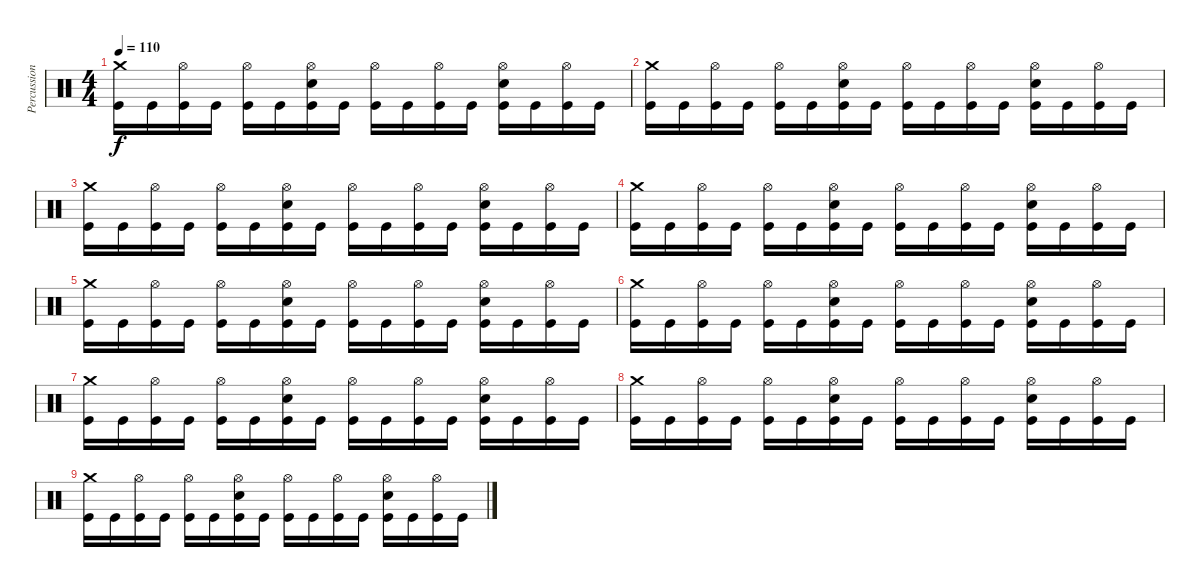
\track ("Percussion" "Percussion") {instrument percussion}
\staff {score}
\articulation defaults
\ts (4 4)
\tempo 110
\clef neutral
\ks c
("Crash medium (hit)" "Kick (hit)").16{dy f} "Kick (hit)".16 ("Hi-Hat (open)" "Kick (hit)").16 "Kick (hit)".16 ("Hi-Hat (open)" "Kick (hit)").16 "Kick (hit)".16 ("Hi-Hat (open)" "Snare (hit) 2" "Kick (hit)").16 "Kick (hit)".16 ("Hi-Hat (open)" "Kick (hit)").16 "Kick (hit)".16 ("Hi-Hat (open)" "Kick (hit)").16 "Kick (hit)".16 ("Hi-Hat (open)" "Snare (hit) 2" "Kick (hit)").16 "Kick (hit)".16 ("Hi-Hat (open)" "Kick (hit)").16 "Kick (hit)".16 |
("Crash medium (hit)" "Kick (hit)").16 "Kick (hit)".16 ("Hi-Hat (open)" "Kick (hit)").16 "Kick (hit)".16 ("Hi-Hat (open)" "Kick (hit)").16 "Kick (hit)".16 ("Hi-Hat (open)" "Snare (hit) 2" "Kick (hit)").16 "Kick (hit)".16 ("Hi-Hat (open)" "Kick (hit)").16 "Kick (hit)".16 ("Hi-Hat (open)" "Kick (hit)").16 "Kick (hit)".16 ("Hi-Hat (open)" "Snare (hit) 2" "Kick (hit)").16 "Kick (hit)".16 ("Hi-Hat (open)" "Kick (hit)").16 "Kick (hit)".16 |
("Crash medium (hit)" "Kick (hit)").16 "Kick (hit)".16 ("Hi-Hat (open)" "Kick (hit)").16 "Kick (hit)".16 ("Hi-Hat (open)" "Kick (hit)").16 "Kick (hit)".16 ("Hi-Hat (open)" "Snare (hit) 2" "Kick (hit)").16 "Kick (hit)".16 ("Hi-Hat (open)" "Kick (hit)").16 "Kick (hit)".16 ("Hi-Hat (open)" "Kick (hit)").16 "Kick (hit)".16 ("Hi-Hat (open)" "Snare (hit) 2" "Kick (hit)").16 "Kick (hit)".16 ("Hi-Hat (open)" "Kick (hit)").16 "Kick (hit)".16 |
("Crash medium (hit)" "Kick (hit)").16 "Kick (hit)".16 ("Hi-Hat (open)" "Kick (hit)").16 "Kick (hit)".16 ("Hi-Hat (open)" "Kick (hit)").16 "Kick (hit)".16 ("Hi-Hat (open)" "Snare (hit) 2" "Kick (hit)").16 "Kick (hit)".16 ("Hi-Hat (open)" "Kick (hit)").16 "Kick (hit)".16 ("Hi-Hat (open)" "Kick (hit)").16 "Kick (hit)".16 ("Hi-Hat (open)" "Snare (hit) 2" "Kick (hit)").16 "Kick (hit)".16 ("Hi-Hat (open)" "Kick (hit)").16 "Kick (hit)".16 |
("Crash medium (hit)" "Kick (hit)").16 "Kick (hit)".16 ("Hi-Hat (open)" "Kick (hit)").16 "Kick (hit)".16 ("Hi-Hat (open)" "Kick (hit)").16 "Kick (hit)".16 ("Hi-Hat (open)" "Snare (hit) 2" "Kick (hit)").16 "Kick (hit)".16 ("Hi-Hat (open)" "Kick (hit)").16 "Kick (hit)".16 ("Hi-Hat (open)" "Kick (hit)").16 "Kick (hit)".16 ("Hi-Hat (open)" "Snare (hit) 2" "Kick (hit)").16 "Kick (hit)".16 ("Hi-Hat (open)" "Kick (hit)").16 "Kick (hit)".16 |
("Crash medium (hit)" "Kick (hit)").16 "Kick (hit)".16 ("Hi-Hat (open)" "Kick (hit)").16 "Kick (hit)".16 ("Hi-Hat (open)" "Kick (hit)").16 "Kick (hit)".16 ("Hi-Hat (open)" "Snare (hit) 2" "Kick (hit)").16 "Kick (hit)".16 ("Hi-Hat (open)" "Kick (hit)").16 "Kick (hit)".16 ("Hi-Hat (open)" "Kick (hit)").16 "Kick (hit)".16 ("Hi-Hat (open)" "Snare (hit) 2" "Kick (hit)").16 "Kick (hit)".16 ("Hi-Hat (open)" "Kick (hit)").16 "Kick (hit)".16 |
("Crash medium (hit)" "Kick (hit)").16 "Kick (hit)".16 ("Hi-Hat (open)" "Kick (hit)").16 "Kick (hit)".16 ("Hi-Hat (open)" "Kick (hit)").16 "Kick (hit)".16 ("Hi-Hat (open)" "Snare (hit) 2" "Kick (hit)").16 "Kick (hit)".16 ("Hi-Hat (open)" "Kick (hit)").16 "Kick (hit)".16 ("Hi-Hat (open)" "Kick (hit)").16 "Kick (hit)".16 ("Hi-Hat (open)" "Snare (hit) 2" "Kick (hit)").16 "Kick (hit)".16 ("Hi-Hat (open)" "Kick (hit)").16 "Kick (hit)".16 |
("Crash medium (hit)" "Kick (hit)").16 "Kick (hit)".16 ("Hi-Hat (open)" "Kick (hit)").16 "Kick (hit)".16 ("Hi-Hat (open)" "Kick (hit)").16 "Kick (hit)".16 ("Hi-Hat (open)" "Snare (hit) 2" "Kick (hit)").16 "Kick (hit)".16 ("Hi-Hat (open)" "Kick (hit)").16 "Kick (hit)".16 ("Hi-Hat (open)" "Kick (hit)").16 "Kick (hit)".16 ("Hi-Hat (open)" "Snare (hit) 2" "Kick (hit)").16 "Kick (hit)".16 ("Hi-Hat (open)" "Kick (hit)").16 "Kick (hit)".16 |
("Crash medium (hit)" "Kick (hit)").16 "Kick (hit)".16 ("Hi-Hat (open)" "Kick (hit)").16 "Kick (hit)".16 ("Hi-Hat (open)" "Kick (hit)").16 "Kick (hit)".16 ("Hi-Hat (open)" "Snare (hit) 2" "Kick (hit)").16 "Kick (hit)".16 ("Hi-Hat (open)" "Kick (hit)").16 "Kick (hit)".16 ("Hi-Hat (open)" "Kick (hit)").16 "Kick (hit)".16 ("Hi-Hat (open)" "Snare (hit) 2" "Kick (hit)").16 "Kick (hit)".16 ("Hi-Hat (open)" "Kick (hit)").16 "Kick (hit)".16
